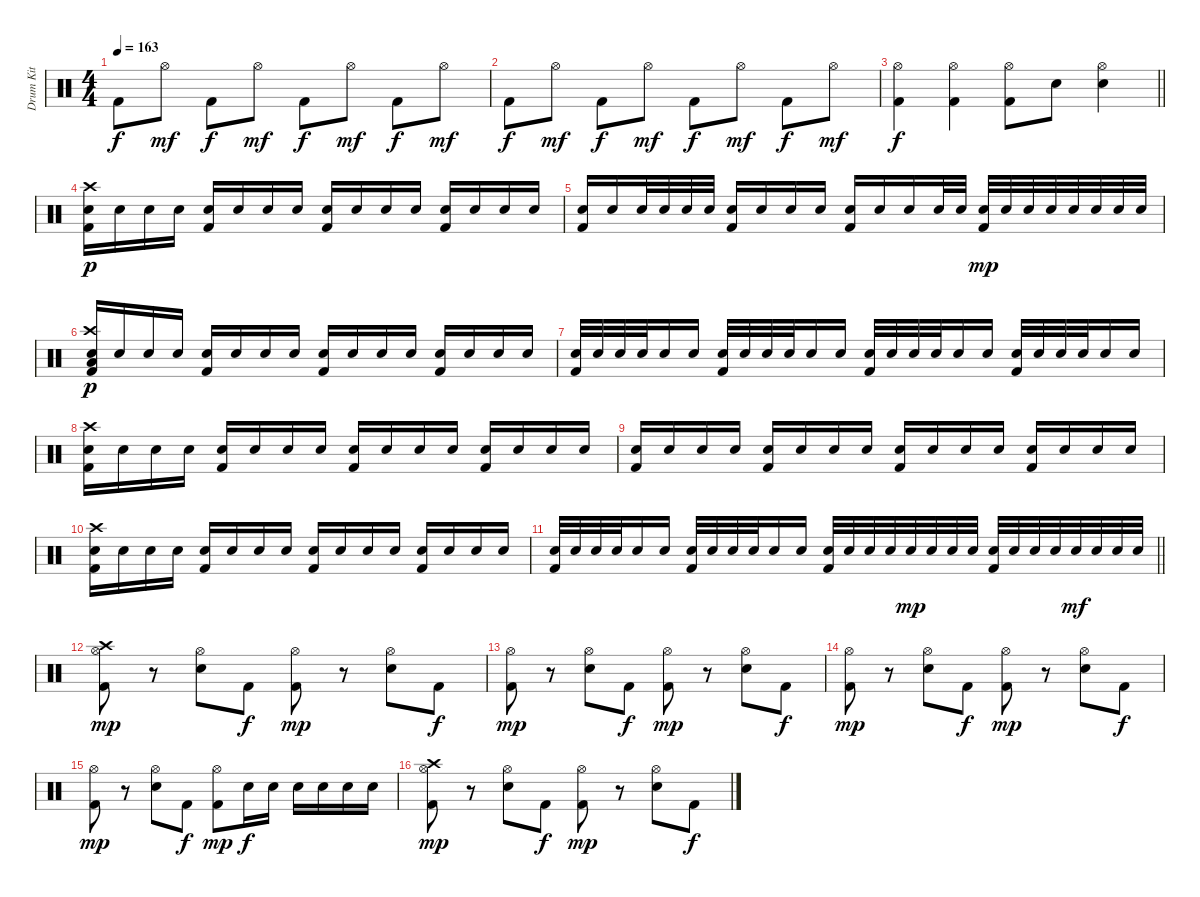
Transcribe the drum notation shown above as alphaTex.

\track ("Drum Kit" "Drum Kit") {instrument percussion}
\staff {score}
\articulation defaults
\ts (4 4)
\tempo 163
\clef neutral
\ks c "Kick (hit) 2".8{dy f} "Hi-Hat (open)".8{dy mf} "Kick (hit) 2".8{dy f} "Hi-Hat (open)".8{dy mf} "Kick (hit) 2".8{dy f} "Hi-Hat (open)".8{dy mf} "Kick (hit) 2".8{dy f} "Hi-Hat (open)".8{dy mf}
|
"Kick (hit) 2".8{dy f} "Hi-Hat (open)".8{dy mf} "Kick (hit) 2".8{dy f} "Hi-Hat (open)".8{dy mf} "Kick (hit) 2".8{dy f} "Hi-Hat (open)".8{dy mf} "Kick (hit) 2".8{dy f} "Hi-Hat (open)".8{dy mf} |
\barLineRight lightlight
("Hi-Hat (open)" "Kick (hit) 2").4{dy f} ("Hi-Hat (open)" "Kick (hit) 2").4 ("Hi-Hat (open)" "Kick (hit) 2").8 "Electric Snare (hit)".8 ("Electric Snare (hit)" "Hi-Hat (open)").4 |
("Crash high (hit)" "Electric Snare (hit)" "Kick (hit) 2").16{dy p} "Electric Snare (hit)".16 "Electric Snare (hit)".16 "Electric Snare (hit)".16 ("Electric Snare (hit)" "Kick (hit) 2").16 "Electric Snare (hit)".16 "Electric Snare (hit)".16 "Electric Snare (hit)".16 ("Electric Snare (hit)" "Kick (hit) 2").16 "Electric Snare (hit)".16 "Electric Snare (hit)".16 "Electric Snare (hit)".16 ("Electric Snare (hit)" "Kick (hit) 2").16 "Electric Snare (hit)".16 "Electric Snare (hit)".16 "Electric Snare (hit)".16 |
("Electric Snare (hit)" "Kick (hit) 2").16 "Electric Snare (hit)".16 "Electric Snare (hit)".32 "Electric Snare (hit)".32 "Electric Snare (hit)".32 "Electric Snare (hit)".32 ("Electric Snare (hit)" "Kick (hit) 2").16 "Electric Snare (hit)".16 "Electric Snare (hit)".16 "Electric Snare (hit)".16 ("Electric Snare (hit)" "Kick (hit) 2").16 "Electric Snare (hit)".16 "Electric Snare (hit)".16 "Electric Snare (hit)".32 "Electric Snare (hit)".32 ("Electric Snare (hit)" "Kick (hit) 2").32{dy mp} "Electric Snare (hit)".32 "Electric Snare (hit)".32 "Electric Snare (hit)".32 "Electric Snare (hit)".32 "Electric Snare (hit)".32 "Electric Snare (hit)".32 "Electric Snare (hit)".32 |
("Low Floor Tom (hit)" "Crash high (hit)" "Electric Snare (hit)" "Kick (hit) 2").16{dy p} "Electric Snare (hit)".16 "Electric Snare (hit)".16 "Electric Snare (hit)".16 ("Electric Snare (hit)" "Kick (hit) 2").16 "Electric Snare (hit)".16 "Electric Snare (hit)".16 "Electric Snare (hit)".16 ("Electric Snare (hit)" "Kick (hit) 2").16 "Electric Snare (hit)".16 "Electric Snare (hit)".16 "Electric Snare (hit)".16 ("Electric Snare (hit)" "Kick (hit) 2").16 "Electric Snare (hit)".16 "Electric Snare (hit)".16 "Electric Snare (hit)".16 |
("Electric Snare (hit)" "Kick (hit) 2").32 "Electric Snare (hit)".32 "Electric Snare (hit)".32 "Electric Snare (hit)".32 "Electric Snare (hit)".16 "Electric Snare (hit)".16 ("Electric Snare (hit)" "Kick (hit) 2").32 "Electric Snare (hit)".32 "Electric Snare (hit)".32 "Electric Snare (hit)".32 "Electric Snare (hit)".16 "Electric Snare (hit)".16 ("Electric Snare (hit)" "Kick (hit) 2").32 "Electric Snare (hit)".32 "Electric Snare (hit)".32 "Electric Snare (hit)".32 "Electric Snare (hit)".16 "Electric Snare (hit)".16 ("Electric Snare (hit)" "Kick (hit) 2").32 "Electric Snare (hit)".32 "Electric Snare (hit)".32 "Electric Snare (hit)".32 "Electric Snare (hit)".16 "Electric Snare (hit)".16 |
("Crash high (hit)" "Electric Snare (hit)" "Kick (hit) 2").16 "Electric Snare (hit)".16 "Electric Snare (hit)".16 "Electric Snare (hit)".16 ("Electric Snare (hit)" "Kick (hit) 2").16 "Electric Snare (hit)".16 "Electric Snare (hit)".16 "Electric Snare (hit)".16 ("Electric Snare (hit)" "Kick (hit) 2").16 "Electric Snare (hit)".16 "Electric Snare (hit)".16 "Electric Snare (hit)".16 ("Electric Snare (hit)" "Kick (hit) 2").16 "Electric Snare (hit)".16 "Electric Snare (hit)".16 "Electric Snare (hit)".16 |
("Electric Snare (hit)" "Kick (hit) 2").16 "Electric Snare (hit)".16 "Electric Snare (hit)".16 "Electric Snare (hit)".16 ("Electric Snare (hit)" "Kick (hit) 2").16 "Electric Snare (hit)".16 "Electric Snare (hit)".16 "Electric Snare (hit)".16 ("Electric Snare (hit)" "Kick (hit) 2").16 "Electric Snare (hit)".16 "Electric Snare (hit)".16 "Electric Snare (hit)".16 ("Electric Snare (hit)" "Kick (hit) 2").16 "Electric Snare (hit)".16 "Electric Snare (hit)".16 "Electric Snare (hit)".16 |
("Crash high (hit)" "Electric Snare (hit)" "Kick (hit) 2").16 "Electric Snare (hit)".16 "Electric Snare (hit)".16 "Electric Snare (hit)".16 ("Electric Snare (hit)" "Kick (hit) 2").16 "Electric Snare (hit)".16 "Electric Snare (hit)".16 "Electric Snare (hit)".16 ("Electric Snare (hit)" "Kick (hit) 2").16 "Electric Snare (hit)".16 "Electric Snare (hit)".16 "Electric Snare (hit)".16 ("Electric Snare (hit)" "Kick (hit) 2").16 "Electric Snare (hit)".16 "Electric Snare (hit)".16 "Electric Snare (hit)".16 |
\barLineRight lightlight
("Electric Snare (hit)" "Kick (hit) 2").32 "Electric Snare (hit)".32 "Electric Snare (hit)".32 "Electric Snare (hit)".32 "Electric Snare (hit)".16 "Electric Snare (hit)".16 ("Electric Snare (hit)" "Kick (hit) 2").32 "Electric Snare (hit)".32 "Electric Snare (hit)".32 "Electric Snare (hit)".32 "Electric Snare (hit)".16 "Electric Snare (hit)".16 ("Electric Snare (hit)" "Kick (hit) 2").32 "Electric Snare (hit)".32 "Electric Snare (hit)".32 "Electric Snare (hit)".32 "Electric Snare (hit)".32{dy mp} "Electric Snare (hit)".32 "Electric Snare (hit)".32 "Electric Snare (hit)".32 ("Electric Snare (hit)" "Kick (hit) 2").32 "Electric Snare (hit)".32 "Electric Snare (hit)".32 "Electric Snare (hit)".32 "Electric Snare (hit)".32{dy mf} "Electric Snare (hit)".32 "Electric Snare (hit)".32 "Electric Snare (hit)".32 |
("Crash high (hit)" "Hi-Hat (open)" "Kick (hit) 2").8{dy mp} r.8 ("Hi-Hat (open)" "Electric Snare (hit)").8 "Kick (hit) 2".8{dy f} ("Hi-Hat (open)" "Kick (hit) 2").8{dy mp} r.8 ("Hi-Hat (open)" "Electric Snare (hit)").8 "Kick (hit) 2".8{dy f} |
("Hi-Hat (open)" "Kick (hit) 2").8{dy mp} r.8 ("Hi-Hat (open)" "Electric Snare (hit)").8 "Kick (hit) 2".8{dy f} ("Hi-Hat (open)" "Kick (hit) 2").8{dy mp} r.8 ("Hi-Hat (open)" "Electric Snare (hit)").8 "Kick (hit) 2".8{dy f} |
("Hi-Hat (open)" "Kick (hit) 2").8{dy mp} r.8 ("Hi-Hat (open)" "Electric Snare (hit)").8 "Kick (hit) 2".8{dy f} ("Hi-Hat (open)" "Kick (hit) 2").8{dy mp} r.8 ("Hi-Hat (open)" "Electric Snare (hit)").8 "Kick (hit) 2".8{dy f} |
("Hi-Hat (open)" "Kick (hit) 2").8{dy mp} r.8 ("Hi-Hat (open)" "Electric Snare (hit)").8 "Kick (hit) 2".8{dy f} ("Hi-Hat (open)" "Kick (hit) 2").8{dy mp} "Electric Snare (hit)".16{dy f} "Electric Snare (hit)".16 "Electric Snare (hit)".16 "Electric Snare (hit)".16 "Electric Snare (hit)".16 "Electric Snare (hit)".16 |
("Crash high (hit)" "Hi-Hat (open)" "Kick (hit) 2").8{dy mp} r.8 ("Hi-Hat (open)" "Electric Snare (hit)").8 "Kick (hit) 2".8{dy f} ("Hi-Hat (open)" "Kick (hit) 2").8{dy mp} r.8 ("Hi-Hat (open)" "Electric Snare (hit)").8 "Kick (hit) 2".8{dy f}
